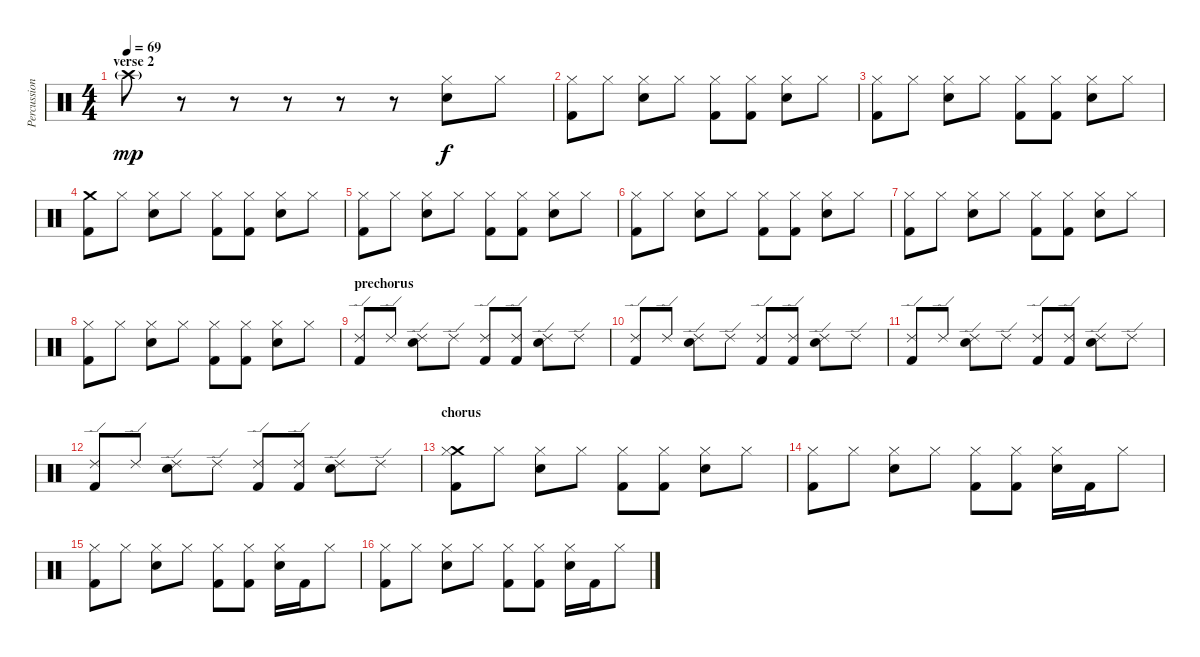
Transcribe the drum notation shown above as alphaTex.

\track ("Percussion" "Percussion") {instrument percussion}
\staff {score}
\articulation defaults
\ts (4 4)
\section ("" "verse 2")
\tempo 69
\clef neutral
\ks c "Crash high (hit)"{g}.8{dy mp}
r.8 r.8 r.8 r.8 r.8 ("Hi-Hat (closed)" "Electric Snare (hit)").8{dy f} "Hi-Hat (closed)".8 |
("Hi-Hat (closed)" "Kick (hit) 2").8 "Hi-Hat (closed)".8 ("Hi-Hat (closed)" "Electric Snare (hit)").8 "Hi-Hat (closed)".8 ("Hi-Hat (closed)" "Kick (hit) 2").8 ("Hi-Hat (closed)" "Kick (hit) 2").8 ("Hi-Hat (closed)" "Electric Snare (hit)").8 "Hi-Hat (closed)".8 |
("Hi-Hat (closed)" "Kick (hit) 2").8 "Hi-Hat (closed)".8 ("Hi-Hat (closed)" "Electric Snare (hit)").8 "Hi-Hat (closed)".8 ("Hi-Hat (closed)" "Kick (hit) 2").8 ("Hi-Hat (closed)" "Kick (hit) 2").8 ("Hi-Hat (closed)" "Electric Snare (hit)").8 "Hi-Hat (closed)".8 |
("Crash medium (hit)" "Kick (hit) 2").8 "Hi-Hat (closed)".8 ("Hi-Hat (closed)" "Electric Snare (hit)").8 "Hi-Hat (closed)".8 ("Hi-Hat (closed)" "Kick (hit) 2").8 ("Hi-Hat (closed)" "Kick (hit) 2").8 ("Hi-Hat (closed)" "Electric Snare (hit)").8 "Hi-Hat (closed)".8 |
("Hi-Hat (closed)" "Kick (hit) 2").8 "Hi-Hat (closed)".8 ("Hi-Hat (closed)" "Electric Snare (hit)").8 "Hi-Hat (closed)".8 ("Hi-Hat (closed)" "Kick (hit) 2").8 ("Hi-Hat (closed)" "Kick (hit) 2").8 ("Hi-Hat (closed)" "Electric Snare (hit)").8 "Hi-Hat (closed)".8 |
("Hi-Hat (closed)" "Kick (hit) 2").8 "Hi-Hat (closed)".8 ("Hi-Hat (closed)" "Electric Snare (hit)").8 "Hi-Hat (closed)".8 ("Hi-Hat (closed)" "Kick (hit) 2").8 ("Hi-Hat (closed)" "Kick (hit) 2").8 ("Hi-Hat (closed)" "Electric Snare (hit)").8 "Hi-Hat (closed)".8 |
("Hi-Hat (closed)" "Kick (hit) 2").8 "Hi-Hat (closed)".8 ("Hi-Hat (closed)" "Electric Snare (hit)").8 "Hi-Hat (closed)".8 ("Hi-Hat (closed)" "Kick (hit) 2").8 ("Hi-Hat (closed)" "Kick (hit) 2").8 ("Hi-Hat (closed)" "Electric Snare (hit)").8 "Hi-Hat (closed)".8 |
("Hi-Hat (closed)" "Kick (hit) 2").8 "Hi-Hat (closed)".8 ("Hi-Hat (closed)" "Electric Snare (hit)").8 "Hi-Hat (closed)".8 ("Hi-Hat (closed)" "Kick (hit) 2").8 ("Hi-Hat (closed)" "Kick (hit) 2").8 ("Hi-Hat (closed)" "Electric Snare (hit)").8 "Hi-Hat (closed)".8 |
\section ("" "prechorus")
("Ride (edge) 2" "Kick (hit) 2").8 "Ride (edge) 2".8 ("Ride (edge) 2" "Electric Snare (hit)").8 "Ride (edge) 2".8 ("Ride (edge) 2" "Kick (hit) 2").8 ("Ride (edge) 2" "Kick (hit) 2").8 ("Ride (edge) 2" "Electric Snare (hit)").8 "Ride (edge) 2".8 |
("Ride (edge) 2" "Kick (hit) 2").8 "Ride (edge) 2".8 ("Ride (edge) 2" "Electric Snare (hit)").8 "Ride (edge) 2".8 ("Ride (edge) 2" "Kick (hit) 2").8 ("Ride (edge) 2" "Kick (hit) 2").8 ("Ride (edge) 2" "Electric Snare (hit)").8 "Ride (edge) 2".8 |
("Ride (edge) 2" "Kick (hit) 2").8 "Ride (edge) 2".8 ("Ride (edge) 2" "Electric Snare (hit)").8 "Ride (edge) 2".8 ("Ride (edge) 2" "Kick (hit) 2").8 ("Ride (edge) 2" "Kick (hit) 2").8 ("Ride (edge) 2" "Electric Snare (hit)").8 "Ride (edge) 2".8 |
("Ride (edge) 2" "Kick (hit) 2").8 "Ride (edge) 2".8 ("Ride (edge) 2" "Electric Snare (hit)").8 "Ride (edge) 2".8 ("Ride (edge) 2" "Kick (hit) 2").8 ("Ride (edge) 2" "Kick (hit) 2").8 ("Ride (edge) 2" "Electric Snare (hit)").8 "Ride (edge) 2".8 |
\section ("" "chorus")
("Crash medium (hit)" "Hi-Hat (closed)" "Kick (hit) 2").8 "Hi-Hat (closed)".8 ("Hi-Hat (closed)" "Electric Snare (hit)").8 "Hi-Hat (closed)".8 ("Hi-Hat (closed)" "Kick (hit) 2").8 ("Hi-Hat (closed)" "Kick (hit) 2").8 ("Hi-Hat (closed)" "Electric Snare (hit)").8 "Hi-Hat (closed)".8 |
("Hi-Hat (closed)" "Kick (hit) 2").8 "Hi-Hat (closed)".8 ("Hi-Hat (closed)" "Electric Snare (hit)").8 "Hi-Hat (closed)".8 ("Hi-Hat (closed)" "Kick (hit) 2").8 ("Hi-Hat (closed)" "Kick (hit) 2").8 ("Hi-Hat (closed)" "Electric Snare (hit)").16 "Kick (hit) 2".16 "Hi-Hat (closed)".8 |
("Hi-Hat (closed)" "Kick (hit) 2").8 "Hi-Hat (closed)".8 ("Hi-Hat (closed)" "Electric Snare (hit)").8 "Hi-Hat (closed)".8 ("Hi-Hat (closed)" "Kick (hit) 2").8 ("Hi-Hat (closed)" "Kick (hit) 2").8 ("Hi-Hat (closed)" "Electric Snare (hit)").16 "Kick (hit) 2".16 "Hi-Hat (closed)".8 |
("Hi-Hat (closed)" "Kick (hit) 2").8 "Hi-Hat (closed)".8 ("Hi-Hat (closed)" "Electric Snare (hit)").8 "Hi-Hat (closed)".8 ("Hi-Hat (closed)" "Kick (hit) 2").8 ("Hi-Hat (closed)" "Kick (hit) 2").8 ("Hi-Hat (closed)" "Electric Snare (hit)").16 "Kick (hit) 2".16 "Hi-Hat (closed)".8
